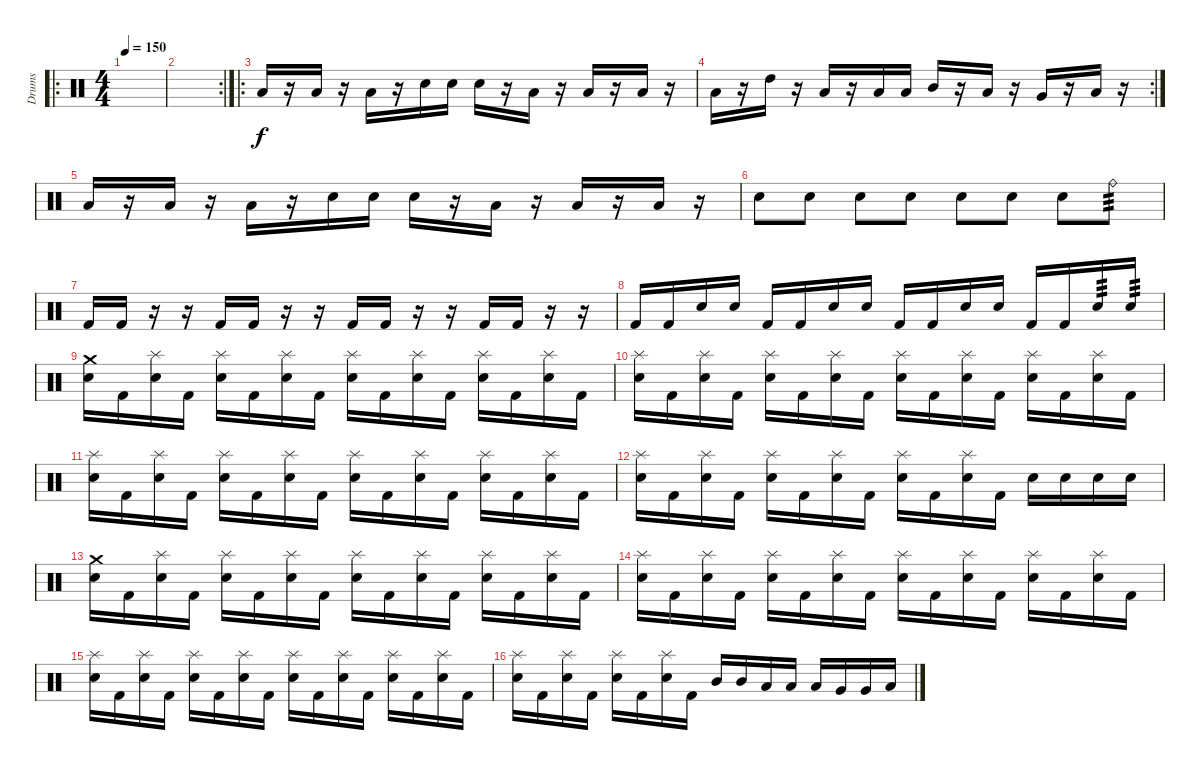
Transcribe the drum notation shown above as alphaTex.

\track ("Drums" "Drums") {instrument percussion}
\staff {score}
\articulation defaults
\ro
\ts (4 4)
\tempo 150
\clef neutral
\ks c
|
\rc 2
|
\ro "Low Floor Tom (hit)".16
r.16 "Low Floor Tom (hit)".16 r.16 "Low Floor Tom (hit)".16 r.16 "Electric Snare (hit)".16 "Electric Snare (hit)".16 "Electric Snare (hit)".16 r.16 "Low Floor Tom (hit)".16 r.16 "Low Floor Tom (hit)".16 r.16 "Low Floor Tom (hit)".16 r.16 |
\rc 2 "Low Floor Tom (hit)".16
r.16 "High Tom (hit)".16 r.16 "Low Floor Tom (hit)".16 r.16 "Low Tom (hit)".16 "Low Floor Tom (hit)".16 "Mid Tom (hit)".16 r.16 "Low Floor Tom (hit)".16 r.16 "Very Low Tom (hit)".16 r.16 "Low Floor Tom (hit)".16 r.16 |
"Low Floor Tom (hit)".16 r.16 "Low Floor Tom (hit)".16 r.16 "Low Floor Tom (hit)".16 r.16 "Electric Snare (hit)".16 "Electric Snare (hit)".16 "Electric Snare (hit)".16 r.16 "Low Floor Tom (hit)".16 r.16 "Low Floor Tom (hit)".16 r.16 "Low Floor Tom (hit)".16 r.16 |
"Electric Snare (hit)".8 "Electric Snare (hit)".8 "Electric Snare (hit)".8 "Electric Snare (hit)".8 "Electric Snare (hit)".8 "Electric Snare (hit)".8 "Electric Snare (hit)".8 "Ride (bell)".8{tp 3} |
"Kick (hit) 2".16 "Kick (hit) 2".16 r.16 r.16 "Kick (hit) 2".16 "Kick (hit) 2".16 r.16 r.16 "Kick (hit) 2".16 "Kick (hit) 2".16 r.16 r.16 "Kick (hit) 2".16 "Kick (hit) 2".16 r.16 r.16 |
"Kick (hit) 2".16 "Kick (hit) 2".16 "Electric Snare (hit)".16 "Electric Snare (hit)".16 "Kick (hit) 2".16 "Kick (hit) 2".16 "Electric Snare (hit)".16 "Electric Snare (hit)".16 "Kick (hit) 2".16 "Kick (hit) 2".16 "Electric Snare (hit)".16 "Electric Snare (hit)".16 "Kick (hit) 2".16 "Kick (hit) 2".16 "Electric Snare (hit)".16{tp 3} "Electric Snare (hit)".16{tp 3} |
("Crash medium (hit)" "Electric Snare (hit)").16 "Kick (hit) 2".16 ("Splash (hit)" "Electric Snare (hit)").16 "Kick (hit) 2".16 ("Splash (hit)" "Electric Snare (hit)").16 "Kick (hit) 2".16 ("Splash (hit)" "Electric Snare (hit)").16 "Kick (hit) 2".16 ("Splash (hit)" "Electric Snare (hit)").16 "Kick (hit) 2".16 ("Splash (hit)" "Electric Snare (hit)").16 "Kick (hit) 2".16 ("Splash (hit)" "Electric Snare (hit)").16 "Kick (hit) 2".16 ("Splash (hit)" "Electric Snare (hit)").16 "Kick (hit) 2".16 |
("Splash (hit)" "Electric Snare (hit)").16 "Kick (hit) 2".16 ("Splash (hit)" "Electric Snare (hit)").16 "Kick (hit) 2".16 ("Splash (hit)" "Electric Snare (hit)").16 "Kick (hit) 2".16 ("Splash (hit)" "Electric Snare (hit)").16 "Kick (hit) 2".16 ("Splash (hit)" "Electric Snare (hit)").16 "Kick (hit) 2".16 ("Splash (hit)" "Electric Snare (hit)").16 "Kick (hit) 2".16 ("Splash (hit)" "Electric Snare (hit)").16 "Kick (hit) 2".16 ("Splash (hit)" "Electric Snare (hit)").16 "Kick (hit) 2".16 |
("Splash (hit)" "Electric Snare (hit)").16 "Kick (hit) 2".16 ("Splash (hit)" "Electric Snare (hit)").16 "Kick (hit) 2".16 ("Splash (hit)" "Electric Snare (hit)").16 "Kick (hit) 2".16 ("Splash (hit)" "Electric Snare (hit)").16 "Kick (hit) 2".16 ("Splash (hit)" "Electric Snare (hit)").16 "Kick (hit) 2".16 ("Splash (hit)" "Electric Snare (hit)").16 "Kick (hit) 2".16 ("Splash (hit)" "Electric Snare (hit)").16 "Kick (hit) 2".16 ("Splash (hit)" "Electric Snare (hit)").16 "Kick (hit) 2".16 |
("Splash (hit)" "Electric Snare (hit)").16 "Kick (hit) 2".16 ("Splash (hit)" "Electric Snare (hit)").16 "Kick (hit) 2".16 ("Splash (hit)" "Electric Snare (hit)").16 "Kick (hit) 2".16 ("Splash (hit)" "Electric Snare (hit)").16 "Kick (hit) 2".16 ("Splash (hit)" "Electric Snare (hit)").16 "Kick (hit) 2".16 ("Splash (hit)" "Electric Snare (hit)").16 "Kick (hit) 2".16 "Electric Snare (hit)".16 "Electric Snare (hit)".16 "Electric Snare (hit)".16 "Electric Snare (hit)".16 |
("Crash medium (hit)" "Electric Snare (hit)").16 "Kick (hit) 2".16 ("Splash (hit)" "Electric Snare (hit)").16 "Kick (hit) 2".16 ("Splash (hit)" "Electric Snare (hit)").16 "Kick (hit) 2".16 ("Splash (hit)" "Electric Snare (hit)").16 "Kick (hit) 2".16 ("Splash (hit)" "Electric Snare (hit)").16 "Kick (hit) 2".16 ("Splash (hit)" "Electric Snare (hit)").16 "Kick (hit) 2".16 ("Splash (hit)" "Electric Snare (hit)").16 "Kick (hit) 2".16 ("Splash (hit)" "Electric Snare (hit)").16 "Kick (hit) 2".16 |
("Splash (hit)" "Electric Snare (hit)").16 "Kick (hit) 2".16 ("Splash (hit)" "Electric Snare (hit)").16 "Kick (hit) 2".16 ("Splash (hit)" "Electric Snare (hit)").16 "Kick (hit) 2".16 ("Splash (hit)" "Electric Snare (hit)").16 "Kick (hit) 2".16 ("Splash (hit)" "Electric Snare (hit)").16 "Kick (hit) 2".16 ("Splash (hit)" "Electric Snare (hit)").16 "Kick (hit) 2".16 ("Splash (hit)" "Electric Snare (hit)").16 "Kick (hit) 2".16 ("Splash (hit)" "Electric Snare (hit)").16 "Kick (hit) 2".16 |
("Splash (hit)" "Electric Snare (hit)").16 "Kick (hit) 2".16 ("Splash (hit)" "Electric Snare (hit)").16 "Kick (hit) 2".16 ("Splash (hit)" "Electric Snare (hit)").16 "Kick (hit) 2".16 ("Splash (hit)" "Electric Snare (hit)").16 "Kick (hit) 2".16 ("Splash (hit)" "Electric Snare (hit)").16 "Kick (hit) 2".16 ("Splash (hit)" "Electric Snare (hit)").16 "Kick (hit) 2".16 ("Splash (hit)" "Electric Snare (hit)").16 "Kick (hit) 2".16 ("Splash (hit)" "Electric Snare (hit)").16 "Kick (hit) 2".16 |
("Splash (hit)" "Electric Snare (hit)").16 "Kick (hit) 2".16 ("Splash (hit)" "Electric Snare (hit)").16 "Kick (hit) 2".16 ("Splash (hit)" "Electric Snare (hit)").16 "Kick (hit) 2".16 ("Splash (hit)" "Electric Snare (hit)").16 "Kick (hit) 2".16 "Mid Tom (hit)".16 "Mid Tom (hit)".16 "Low Tom (hit)".16 "Low Tom (hit)".16 "Low Tom (hit)".16 "Very Low Tom (hit)".16 "Very Low Tom (hit)".16 "Low Floor Tom (hit)".16
